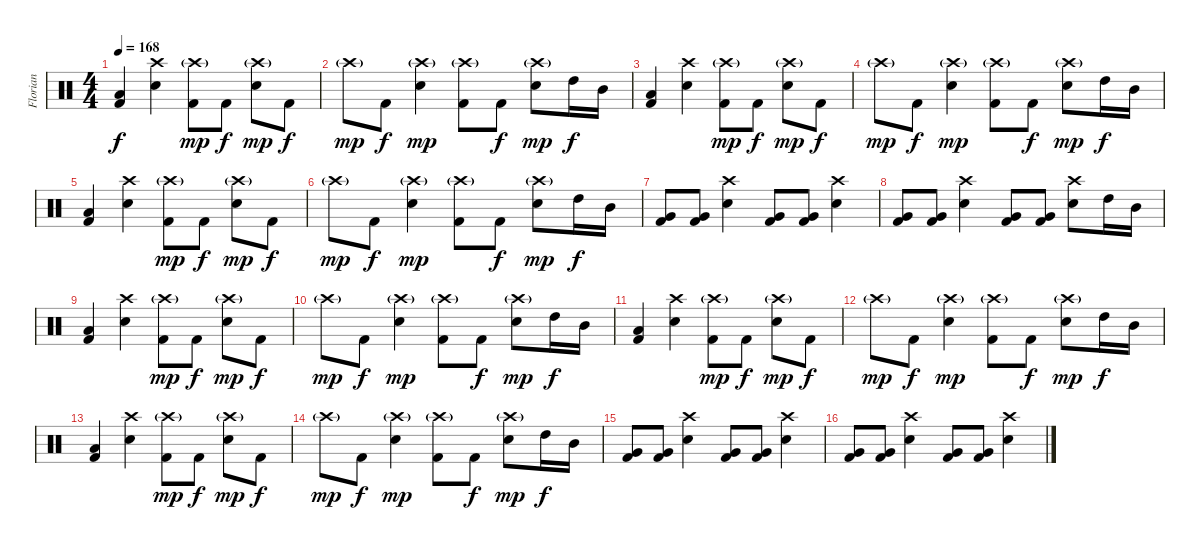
\track ("Florian" "Florian") {instrument percussion}
\staff {score}
\articulation defaults
\ts (4 4)
\tempo 168
\clef neutral
\ks c
("Low Tom (hit)" "Kick (hit) 2").4{dy f} ("Crash high (hit)" "Snare (hit) 2").4 ("Crash high (hit)"{g} "Kick (hit) 2").8{dy mp} "Kick (hit) 2".8{dy f} ("Crash high (hit)"{g} "Snare (hit) 2").8{dy mp} "Kick (hit) 2".8{dy f} |
"Crash high (hit)"{g}.8{dy mp} "Kick (hit) 2".8{dy f} ("Crash high (hit)"{g} "Snare (hit) 2").4{dy mp} ("Crash high (hit)"{g} "Kick (hit) 2").8 "Kick (hit) 2".8{dy f} ("Crash high (hit)"{g} "Snare (hit) 2").8{dy mp} "High Tom (hit)".16{dy f} "Mid Tom (hit)".16 |
("Low Tom (hit)" "Kick (hit) 2").4 ("Crash high (hit)" "Snare (hit) 2").4 ("Crash high (hit)"{g} "Kick (hit) 2").8{dy mp} "Kick (hit) 2".8{dy f} ("Crash high (hit)"{g} "Snare (hit) 2").8{dy mp} "Kick (hit) 2".8{dy f} |
"Crash high (hit)"{g}.8{dy mp} "Kick (hit) 2".8{dy f} ("Crash high (hit)"{g} "Snare (hit) 2").4{dy mp} ("Crash high (hit)"{g} "Kick (hit) 2").8 "Kick (hit) 2".8{dy f} ("Crash high (hit)"{g} "Snare (hit) 2").8{dy mp} "High Tom (hit)".16{dy f} "Mid Tom (hit)".16 |
("Low Tom (hit)" "Kick (hit) 2").4 ("Crash high (hit)" "Snare (hit) 2").4 ("Crash high (hit)"{g} "Kick (hit) 2").8{dy mp} "Kick (hit) 2".8{dy f} ("Crash high (hit)"{g} "Snare (hit) 2").8{dy mp} "Kick (hit) 2".8{dy f} |
"Crash high (hit)"{g}.8{dy mp} "Kick (hit) 2".8{dy f} ("Crash high (hit)"{g} "Snare (hit) 2").4{dy mp} ("Crash high (hit)"{g} "Kick (hit) 2").8 "Kick (hit) 2".8{dy f} ("Crash high (hit)"{g} "Snare (hit) 2").8{dy mp} "High Tom (hit)".16{dy f} "Mid Tom (hit)".16 |
("Very Low Tom (hit)" "Kick (hit) 2").8 ("Very Low Tom (hit)" "Kick (hit) 2").8 ("Crash high (hit)" "Snare (hit) 2").4 ("Very Low Tom (hit)" "Kick (hit) 2").8 ("Very Low Tom (hit)" "Kick (hit) 2").8 ("Crash high (hit)" "Snare (hit) 2").4 |
("Very Low Tom (hit)" "Kick (hit) 2").8 ("Very Low Tom (hit)" "Kick (hit) 2").8 ("Crash high (hit)" "Snare (hit) 2").4 ("Very Low Tom (hit)" "Kick (hit) 2").8 ("Very Low Tom (hit)" "Kick (hit) 2").8 ("Crash high (hit)" "Snare (hit) 2").8 "High Tom (hit)".16 "Mid Tom (hit)".16 |
("Low Tom (hit)" "Kick (hit) 2").4 ("Crash high (hit)" "Snare (hit) 2").4 ("Crash high (hit)"{g} "Kick (hit) 2").8{dy mp} "Kick (hit) 2".8{dy f} ("Crash high (hit)"{g} "Snare (hit) 2").8{dy mp} "Kick (hit) 2".8{dy f} |
"Crash high (hit)"{g}.8{dy mp} "Kick (hit) 2".8{dy f} ("Crash high (hit)"{g} "Snare (hit) 2").4{dy mp} ("Crash high (hit)"{g} "Kick (hit) 2").8 "Kick (hit) 2".8{dy f} ("Crash high (hit)"{g} "Snare (hit) 2").8{dy mp} "High Tom (hit)".16{dy f} "Mid Tom (hit)".16 |
("Low Tom (hit)" "Kick (hit) 2").4 ("Crash high (hit)" "Snare (hit) 2").4 ("Crash high (hit)"{g} "Kick (hit) 2").8{dy mp} "Kick (hit) 2".8{dy f} ("Crash high (hit)"{g} "Snare (hit) 2").8{dy mp} "Kick (hit) 2".8{dy f} |
"Crash high (hit)"{g}.8{dy mp} "Kick (hit) 2".8{dy f} ("Crash high (hit)"{g} "Snare (hit) 2").4{dy mp} ("Crash high (hit)"{g} "Kick (hit) 2").8 "Kick (hit) 2".8{dy f} ("Crash high (hit)"{g} "Snare (hit) 2").8{dy mp} "High Tom (hit)".16{dy f} "Mid Tom (hit)".16 |
("Low Tom (hit)" "Kick (hit) 2").4 ("Crash high (hit)" "Snare (hit) 2").4 ("Crash high (hit)"{g} "Kick (hit) 2").8{dy mp} "Kick (hit) 2".8{dy f} ("Crash high (hit)"{g} "Snare (hit) 2").8{dy mp} "Kick (hit) 2".8{dy f} |
"Crash high (hit)"{g}.8{dy mp} "Kick (hit) 2".8{dy f} ("Crash high (hit)"{g} "Snare (hit) 2").4{dy mp} ("Crash high (hit)"{g} "Kick (hit) 2").8 "Kick (hit) 2".8{dy f} ("Crash high (hit)"{g} "Snare (hit) 2").8{dy mp} "High Tom (hit)".16{dy f} "Mid Tom (hit)".16 |
("Very Low Tom (hit)" "Kick (hit) 2").8 ("Very Low Tom (hit)" "Kick (hit) 2").8 ("Crash high (hit)" "Snare (hit) 2").4 ("Very Low Tom (hit)" "Kick (hit) 2").8 ("Very Low Tom (hit)" "Kick (hit) 2").8 ("Crash high (hit)" "Snare (hit) 2").4 |
("Very Low Tom (hit)" "Kick (hit) 2").8 ("Very Low Tom (hit)" "Kick (hit) 2").8 ("Crash high (hit)" "Snare (hit) 2").4 ("Very Low Tom (hit)" "Kick (hit) 2").8 ("Very Low Tom (hit)" "Kick (hit) 2").8 ("Crash high (hit)" "Snare (hit) 2").4
